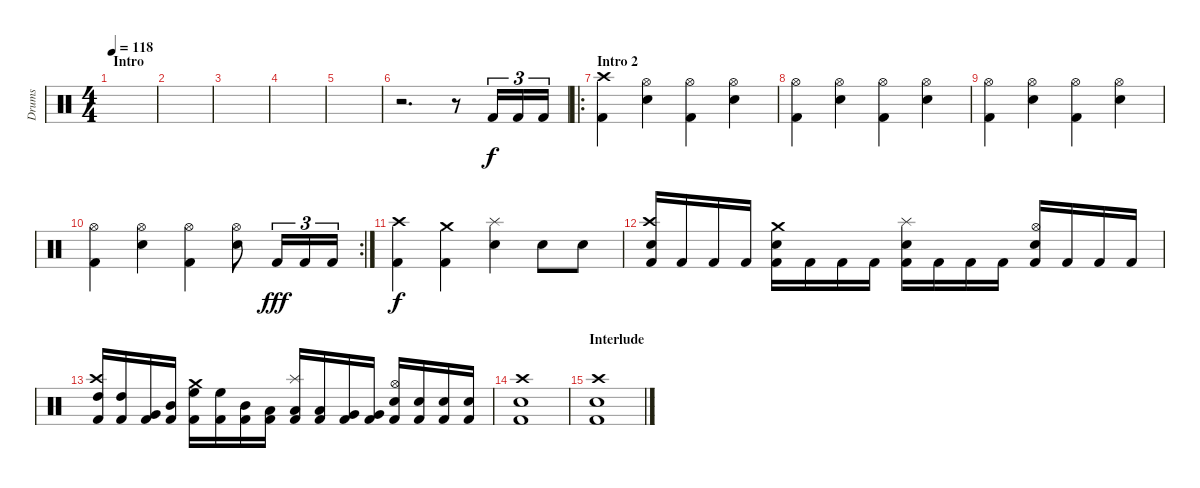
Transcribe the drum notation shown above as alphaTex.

\track ("Drums" "Drums") {instrument percussion}
\staff {score}
\articulation defaults
\ts (4 4)
\section ("" "Intro")
\tempo 118
\clef neutral
\ks c
|
|
|
|
|
r.2{d} r.8 "Kick (hit) 2".16{tu (3 2)} "Kick (hit) 2".16{tu (3 2)} "Kick (hit) 2".16{tu (3 2)} |
\ro
\section ("" "Intro 2")
("Crash high (hit)" "Kick (hit) 2").4{dy f} ("Hi-Hat (open)" "Electric Snare (hit)").4 ("Hi-Hat (open)" "Kick (hit) 2").4 ("Hi-Hat (open)" "Electric Snare (hit)").4 |
("Hi-Hat (open)" "Kick (hit) 2").4 ("Hi-Hat (open)" "Electric Snare (hit)").4 ("Hi-Hat (open)" "Kick (hit) 2").4 ("Hi-Hat (open)" "Electric Snare (hit)").4 |
("Hi-Hat (open)" "Kick (hit) 2").4 ("Hi-Hat (open)" "Electric Snare (hit)").4 ("Hi-Hat (open)" "Kick (hit) 2").4 ("Hi-Hat (open)" "Electric Snare (hit)").4 |
\rc 2
("Hi-Hat (open)" "Kick (hit) 2").4 ("Hi-Hat (open)" "Electric Snare (hit)").4 ("Hi-Hat (open)" "Kick (hit) 2").4 ("Hi-Hat (open)" "Electric Snare (hit)").8 "Kick (hit) 2".16{tu (3 2) dy fff} "Kick (hit) 2".16{tu (3 2)} "Kick (hit) 2".16{tu (3 2)} |
("Crash high (hit)" "Kick (hit) 2").4{dy f} ("Crash medium (hit)" "Kick (hit) 2").4 ("Splash (hit)" "Electric Snare (hit)").4 "Electric Snare (hit)".8 "Electric Snare (hit)".8 |
("Kick (hit) 2" "Crash high (hit)" "Electric Snare (hit)").16 "Kick (hit) 2".16 "Kick (hit) 2".16 "Kick (hit) 2".16 ("Kick (hit) 2" "Crash medium (hit)" "Electric Snare (hit)").16 "Kick (hit) 2".16 "Kick (hit) 2".16 "Kick (hit) 2".16 ("Kick (hit) 2" "Splash (hit)" "Electric Snare (hit)").16 "Kick (hit) 2".16 "Kick (hit) 2".16 "Kick (hit) 2".16 ("Kick (hit) 2" "Hi-Hat (open)" "Electric Snare (hit)").16 "Kick (hit) 2".16 "Kick (hit) 2".16 "Kick (hit) 2".16 |
("Kick (hit) 2" "Crash high (hit)" "High Tom (hit)").16 ("Kick (hit) 2" "High Tom (hit)").16 ("Kick (hit) 2" "Very Low Tom (hit)").16 ("Kick (hit) 2" "Mid Tom (hit)").16 ("Kick (hit) 2" "Crash medium (hit)" "High Floor Tom (hit)").16 ("Kick (hit) 2" "High Floor Tom (hit)").16 ("Kick (hit) 2" "Mid Tom (hit)").16 ("Kick (hit) 2" "Low Tom (hit)").16 ("Kick (hit) 2" "Splash (hit)" "Low Floor Tom (hit)").16 ("Kick (hit) 2" "Low Floor Tom (hit)").16 ("Kick (hit) 2" "Very Low Tom (hit)").16 ("Kick (hit) 2" "Very Low Tom (hit)").16 ("Kick (hit) 2" "Hi-Hat (open)" "Electric Snare (hit)").16 ("Kick (hit) 2" "Electric Snare (hit)").16 ("Kick (hit) 2" "Electric Snare (hit)").16 ("Kick (hit) 2" "Electric Snare (hit)").16 |
("Crash high (hit)" "Kick (hit) 2" "Electric Snare (hit)").1 |
\section ("" "Interlude")
("Crash high (hit)" "Kick (hit) 2" "Electric Snare (hit)").1
